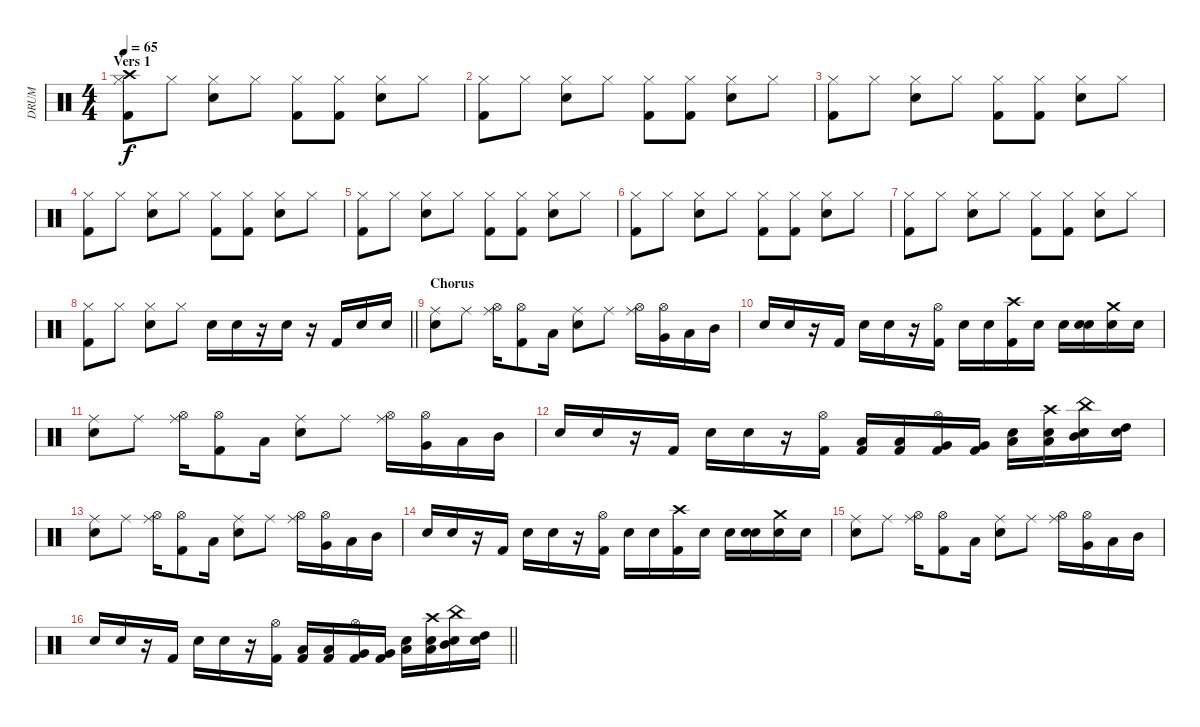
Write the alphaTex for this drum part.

\track ("DRUM" "DRUM") {instrument percussion}
\staff {score}
\articulation defaults
\ts (4 4)
\section ("" "Vers 1")
\tempo 65
\clef neutral
\ks c
("Kick (hit) 2" "Hi-Hat (closed)" "Crash high (hit)").8{dy f} "Hi-Hat (closed)".8 ("Electric Snare (hit)" "Hi-Hat (closed)").8 "Hi-Hat (closed)".8 ("Kick (hit) 2" "Hi-Hat (closed)").8 ("Kick (hit) 2" "Hi-Hat (closed)").8 ("Electric Snare (hit)" "Hi-Hat (closed)").8 "Hi-Hat (closed)".8 |
("Kick (hit) 2" "Hi-Hat (closed)").8 "Hi-Hat (closed)".8 ("Electric Snare (hit)" "Hi-Hat (closed)").8 "Hi-Hat (closed)".8 ("Kick (hit) 2" "Hi-Hat (closed)").8 ("Kick (hit) 2" "Hi-Hat (closed)").8 ("Electric Snare (hit)" "Hi-Hat (closed)").8 "Hi-Hat (closed)".8 |
("Kick (hit) 2" "Hi-Hat (closed)").8 "Hi-Hat (closed)".8 ("Electric Snare (hit)" "Hi-Hat (closed)").8 "Hi-Hat (closed)".8 ("Kick (hit) 2" "Hi-Hat (closed)").8 ("Kick (hit) 2" "Hi-Hat (closed)").8 ("Electric Snare (hit)" "Hi-Hat (closed)").8 "Hi-Hat (closed)".8 |
("Kick (hit) 2" "Hi-Hat (closed)").8 "Hi-Hat (closed)".8 ("Electric Snare (hit)" "Hi-Hat (closed)").8 "Hi-Hat (closed)".8 ("Kick (hit) 2" "Hi-Hat (closed)").8 ("Kick (hit) 2" "Hi-Hat (closed)").8 ("Electric Snare (hit)" "Hi-Hat (closed)").8 "Hi-Hat (closed)".8 |
("Kick (hit) 2" "Hi-Hat (closed)").8 "Hi-Hat (closed)".8 ("Electric Snare (hit)" "Hi-Hat (closed)").8 "Hi-Hat (closed)".8 ("Kick (hit) 2" "Hi-Hat (closed)").8 ("Kick (hit) 2" "Hi-Hat (closed)").8 ("Electric Snare (hit)" "Hi-Hat (closed)").8 "Hi-Hat (closed)".8 |
("Kick (hit) 2" "Hi-Hat (closed)").8 "Hi-Hat (closed)".8 ("Electric Snare (hit)" "Hi-Hat (closed)").8 "Hi-Hat (closed)".8 ("Kick (hit) 2" "Hi-Hat (closed)").8 ("Kick (hit) 2" "Hi-Hat (closed)").8 ("Electric Snare (hit)" "Hi-Hat (closed)").8 "Hi-Hat (closed)".8 |
("Kick (hit) 2" "Hi-Hat (closed)").8 "Hi-Hat (closed)".8 ("Electric Snare (hit)" "Hi-Hat (closed)").8 "Hi-Hat (closed)".8 ("Kick (hit) 2" "Hi-Hat (closed)").8 ("Kick (hit) 2" "Hi-Hat (closed)").8 ("Electric Snare (hit)" "Hi-Hat (closed)").8 "Hi-Hat (closed)".8 |
\barLineRight lightlight
("Kick (hit) 2" "Hi-Hat (closed)").8 "Hi-Hat (closed)".8 ("Electric Snare (hit)" "Hi-Hat (closed)").8 "Hi-Hat (closed)".8 "Electric Snare (hit)".16 "Electric Snare (hit)".16 r.16 "Electric Snare (hit)".16 r.16 "Kick (hit) 2".16 "Electric Snare (hit)".16 "Electric Snare (hit)".16 |
\section ("" "Chorus")
("Snare (hit) 2" "Ride (middle)").8 "Ride (middle)".8 ("Hi-Hat (open)" "Ride (middle)").16 ("Hi-Hat (open)" "Kick (hit) 2").8 "Low Tom (hit)".16 ("Snare (hit) 2" "Ride (middle)").8 "Ride (middle)".8 ("Hi-Hat (open)" "Ride (middle)").16 ("Hi-Hat (open)" "Very Low Tom (hit)").16 "Low Tom (hit)".16 "Mid Tom (hit)".16 |
"Electric Snare (hit)".16 "Electric Snare (hit)".16 r.16 "Kick (hit) 2".16 "Electric Snare (hit)".16 "Electric Snare (hit)".16 r.16 ("Kick (hit) 2" "Hi-Hat (open)").16 "Electric Snare (hit)".16 "Electric Snare (hit)".16 ("Kick (hit) 2" "Crash high (hit)").16 "Electric Snare (hit)".16 "Electric Snare (hit)".16 ("Electric Snare (hit)" "Electric Snare (hit)").16{bu 60} ("Electric Snare (hit)" "Crash medium (hit)").16 "Snare (hit) 2".16 |
("Electric Snare (hit)" "Ride (middle)").8 "Ride (middle)".8 ("Hi-Hat (open)" "Ride (middle)").16 ("Hi-Hat (open)" "Kick (hit) 2").8 "Low Tom (hit)".16 ("Snare (hit) 2" "Ride (middle)").8 "Ride (middle)".8 ("Hi-Hat (open)" "Ride (middle)").16 ("Hi-Hat (open)" "Very Low Tom (hit)").16 "Low Tom (hit)".16 "Mid Tom (hit)".16 |
"Electric Snare (hit)".16 "Electric Snare (hit)".16 r.16 "Kick (hit) 2".16 "Electric Snare (hit)".16 "Electric Snare (hit)".16 r.16 ("Kick (hit) 2" "Hi-Hat (open)").16 ("Kick (hit) 2" "Low Floor Tom (hit)").16 ("Kick (hit) 2" "Low Floor Tom (hit)").16 ("Kick (hit) 2" "Very Low Tom (hit)" "Hi-Hat (open)").16 ("Kick (hit) 2" "Very Low Tom (hit)").16 ("Electric Snare (hit)" "Low Tom (hit)").16 ("Electric Snare (hit)" "Low Tom (hit)" "Crash high (hit)").16 ("Snare (hit) 2" "Mid Tom (hit)" "China (hit)").16 ("Snare (hit) 2" "High Tom (hit)").16 |
("Snare (hit) 2" "Ride (middle)").8 "Ride (middle)".8 ("Hi-Hat (open)" "Ride (middle)").16 ("Hi-Hat (open)" "Kick (hit) 2").8 "Low Tom (hit)".16 ("Snare (hit) 2" "Ride (middle)").8 "Ride (middle)".8 ("Hi-Hat (open)" "Ride (middle)").16 ("Hi-Hat (open)" "Very Low Tom (hit)").16 "Low Tom (hit)".16 "Mid Tom (hit)".16 |
"Electric Snare (hit)".16 "Electric Snare (hit)".16 r.16 "Kick (hit) 2".16 "Electric Snare (hit)".16 "Electric Snare (hit)".16 r.16 ("Kick (hit) 2" "Hi-Hat (open)").16 "Electric Snare (hit)".16 "Electric Snare (hit)".16 ("Kick (hit) 2" "Crash high (hit)").16 "Electric Snare (hit)".16 "Electric Snare (hit)".16 ("Electric Snare (hit)" "Electric Snare (hit)").16{bu 60} ("Electric Snare (hit)" "Crash medium (hit)").16 "Snare (hit) 2".16 |
("Electric Snare (hit)" "Ride (middle)").8 "Ride (middle)".8 ("Hi-Hat (open)" "Ride (middle)").16 ("Hi-Hat (open)" "Kick (hit) 2").8 "Low Tom (hit)".16 ("Snare (hit) 2" "Ride (middle)").8 "Ride (middle)".8 ("Hi-Hat (open)" "Ride (middle)").16 ("Hi-Hat (open)" "Very Low Tom (hit)").16 "Low Tom (hit)".16 "Mid Tom (hit)".16 |
\barLineRight lightlight "Electric Snare (hit)".16 "Electric Snare (hit)".16
r.16 "Kick (hit) 2".16 "Electric Snare (hit)".16 "Electric Snare (hit)".16 r.16 ("Kick (hit) 2" "Hi-Hat (open)").16 ("Kick (hit) 2" "Low Floor Tom (hit)").16 ("Kick (hit) 2" "Low Floor Tom (hit)").16 ("Kick (hit) 2" "Very Low Tom (hit)" "Hi-Hat (open)").16 ("Kick (hit) 2" "Very Low Tom (hit)").16 ("Electric Snare (hit)" "Low Tom (hit)").16 ("Electric Snare (hit)" "Low Tom (hit)" "Crash high (hit)").16 ("Snare (hit) 2" "Mid Tom (hit)" "China (hit)").16 ("Snare (hit) 2" "High Tom (hit)").16
